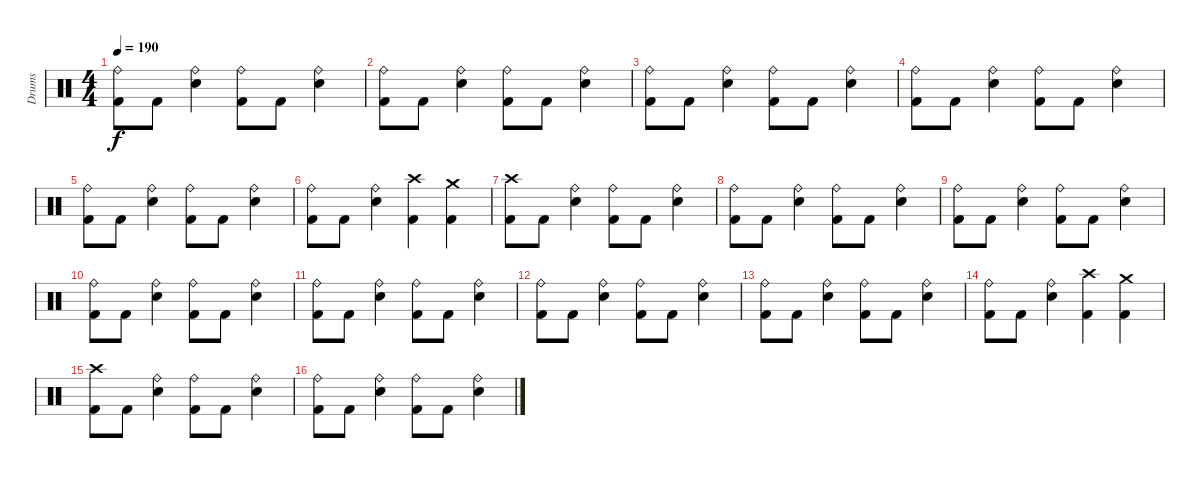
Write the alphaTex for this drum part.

\track ("Drums" "Drums") {instrument percussion}
\staff {score}
\articulation defaults
\ts (4 4)
\tempo 190
\clef neutral
\ks c
("Ride (bell)" "Kick (hit) 2").8{dy f} "Kick (hit) 2".8 ("Ride (bell)" "Snare (hit) 2").4 ("Ride (bell)" "Kick (hit) 2").8 "Kick (hit) 2".8 ("Ride (bell)" "Snare (hit) 2").4 |
("Ride (bell)" "Kick (hit) 2").8 "Kick (hit) 2".8 ("Ride (bell)" "Snare (hit) 2").4 ("Ride (bell)" "Kick (hit) 2").8 "Kick (hit) 2".8 ("Ride (bell)" "Snare (hit) 2").4 |
("Ride (bell)" "Kick (hit) 2").8 "Kick (hit) 2".8 ("Ride (bell)" "Snare (hit) 2").4 ("Ride (bell)" "Kick (hit) 2").8 "Kick (hit) 2".8 ("Ride (bell)" "Snare (hit) 2").4 |
("Ride (bell)" "Kick (hit) 2").8 "Kick (hit) 2".8 ("Ride (bell)" "Snare (hit) 2").4 ("Ride (bell)" "Kick (hit) 2").8 "Kick (hit) 2".8 ("Ride (bell)" "Snare (hit) 2").4 |
("Ride (bell)" "Kick (hit) 2").8 "Kick (hit) 2".8 ("Ride (bell)" "Snare (hit) 2").4 ("Ride (bell)" "Kick (hit) 2").8 "Kick (hit) 2".8 ("Ride (bell)" "Snare (hit) 2").4 |
("Ride (bell)" "Kick (hit) 2").8 "Kick (hit) 2".8 ("Ride (bell)" "Snare (hit) 2").4 ("Crash high (hit)" "Kick (hit) 2").4 ("Crash medium (hit)" "Kick (hit) 2").4 |
("Crash high (hit)" "Kick (hit) 2").8 "Kick (hit) 2".8 ("Ride (bell)" "Snare (hit) 2").4 ("Ride (bell)" "Kick (hit) 2").8 "Kick (hit) 2".8 ("Ride (bell)" "Snare (hit) 2").4 |
("Ride (bell)" "Kick (hit) 2").8 "Kick (hit) 2".8 ("Ride (bell)" "Snare (hit) 2").4 ("Ride (bell)" "Kick (hit) 2").8 "Kick (hit) 2".8 ("Ride (bell)" "Snare (hit) 2").4 |
("Ride (bell)" "Kick (hit) 2").8 "Kick (hit) 2".8 ("Ride (bell)" "Snare (hit) 2").4 ("Ride (bell)" "Kick (hit) 2").8 "Kick (hit) 2".8 ("Ride (bell)" "Snare (hit) 2").4 |
("Ride (bell)" "Kick (hit) 2").8 "Kick (hit) 2".8 ("Ride (bell)" "Snare (hit) 2").4 ("Ride (bell)" "Kick (hit) 2").8 "Kick (hit) 2".8 ("Ride (bell)" "Snare (hit) 2").4 |
("Ride (bell)" "Kick (hit) 2").8 "Kick (hit) 2".8 ("Ride (bell)" "Snare (hit) 2").4 ("Ride (bell)" "Kick (hit) 2").8 "Kick (hit) 2".8 ("Ride (bell)" "Snare (hit) 2").4 |
("Ride (bell)" "Kick (hit) 2").8 "Kick (hit) 2".8 ("Ride (bell)" "Snare (hit) 2").4 ("Ride (bell)" "Kick (hit) 2").8 "Kick (hit) 2".8 ("Ride (bell)" "Snare (hit) 2").4 |
("Ride (bell)" "Kick (hit) 2").8 "Kick (hit) 2".8 ("Ride (bell)" "Snare (hit) 2").4 ("Ride (bell)" "Kick (hit) 2").8 "Kick (hit) 2".8 ("Ride (bell)" "Snare (hit) 2").4 |
("Ride (bell)" "Kick (hit) 2").8 "Kick (hit) 2".8 ("Ride (bell)" "Snare (hit) 2").4 ("Crash high (hit)" "Kick (hit) 2").4 ("Crash medium (hit)" "Kick (hit) 2").4 |
("Crash high (hit)" "Kick (hit) 2").8 "Kick (hit) 2".8 ("Ride (bell)" "Snare (hit) 2").4 ("Ride (bell)" "Kick (hit) 2").8 "Kick (hit) 2".8 ("Ride (bell)" "Snare (hit) 2").4 |
("Ride (bell)" "Kick (hit) 2").8 "Kick (hit) 2".8 ("Ride (bell)" "Snare (hit) 2").4 ("Ride (bell)" "Kick (hit) 2").8 "Kick (hit) 2".8 ("Ride (bell)" "Snare (hit) 2").4
